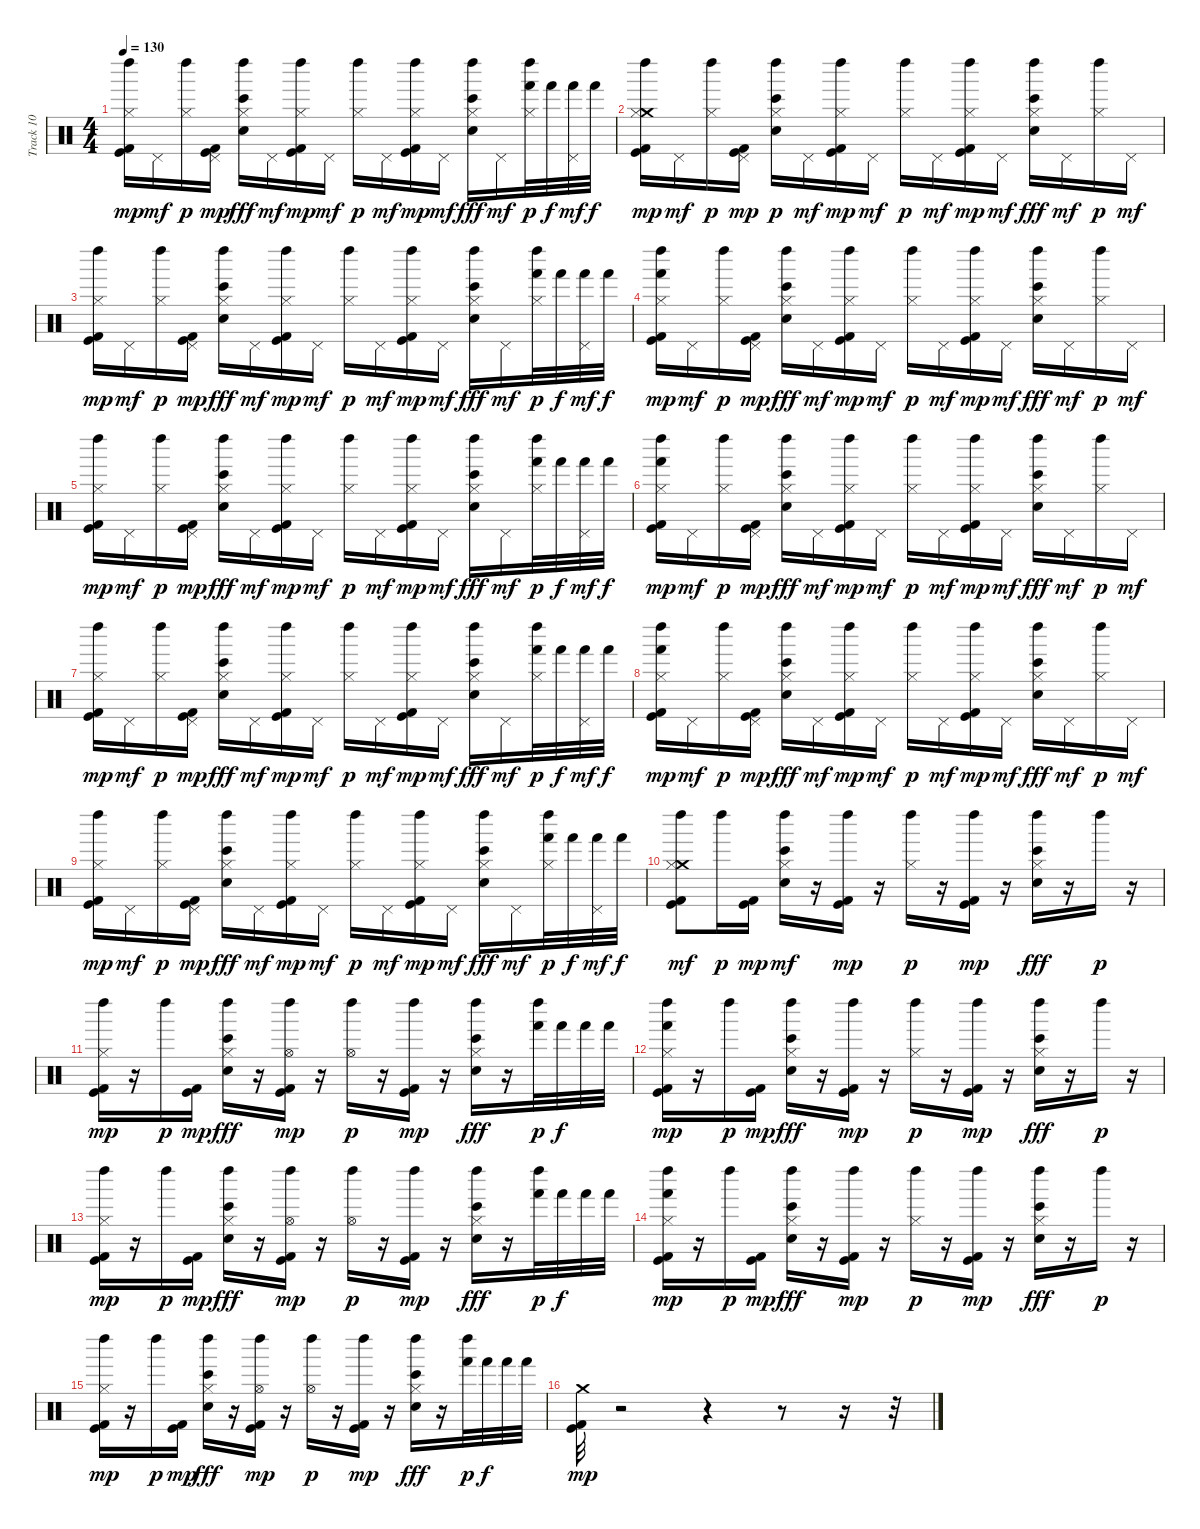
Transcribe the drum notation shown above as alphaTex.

\track ("Track 10" "Track 10") {instrument percussion}
\staff {score}
\articulation defaults
\ts (4 4)
\tempo 130
\clef neutral
\ks c
("Hi-Hat (closed)" "Left Maraca (hit)" "Kick (hit) 2" "Kick (hit)").16{dy mp} "Pedal Hi-Hat (hit)".16{dy mf} ("Hi-Hat (closed)" "Left Maraca (hit)").16{dy p} ("Pedal Hi-Hat (hit)" "Kick (hit) 2" "Kick (hit)").16{dy mp} ("Hi-Hat (closed)" "Left Maraca (hit)" "Hand Clap (hit)" "Bongo High (hit)").16{dy fff} "Pedal Hi-Hat (hit)".16{dy mf} ("Hi-Hat (closed)" "Left Maraca (hit)" "Kick (hit) 2" "Kick (hit)").16{dy mp} "Pedal Hi-Hat (hit)".16{dy mf} ("Hi-Hat (closed)" "Left Maraca (hit)").16{dy p} "Pedal Hi-Hat (hit)".16{dy mf} ("Hi-Hat (closed)" "Left Maraca (hit)" "Kick (hit) 2" "Kick (hit)").16{dy mp} "Pedal Hi-Hat (hit)".16{dy mf} ("Hi-Hat (closed)" "Left Maraca (hit)" "Hand Clap (hit)" "Bongo High (hit)").16{dy fff} "Pedal Hi-Hat (hit)".16{dy mf} ("Hi-Hat (closed)" "Hand (hit)" "Left Maraca (hit)").32{dy p} "Hand (hit)".32{dy f} ("Pedal Hi-Hat (hit)" "Hand (hit)").32{dy mf} "Hand (hit)".32{dy f} |
("Crash medium (hit)" "Hi-Hat (closed)" "Left Maraca (hit)" "Kick (hit) 2" "Kick (hit)").16{dy mp} "Pedal Hi-Hat (hit)".16{dy mf} ("Hi-Hat (closed)" "Left Maraca (hit)").16{dy p} ("Pedal Hi-Hat (hit)" "Kick (hit) 2" "Kick (hit)").16{dy mp} ("Hand Clap (hit)" "Bongo High (hit)" "Hi-Hat (closed)" "Left Maraca (hit)").16{dy p} "Pedal Hi-Hat (hit)".16{dy mf} ("Hi-Hat (closed)" "Left Maraca (hit)" "Kick (hit) 2" "Kick (hit)").16{dy mp} "Pedal Hi-Hat (hit)".16{dy mf} ("Hi-Hat (closed)" "Left Maraca (hit)").16{dy p} "Pedal Hi-Hat (hit)".16{dy mf} ("Hi-Hat (closed)" "Left Maraca (hit)" "Kick (hit) 2" "Kick (hit)").16{dy mp} "Pedal Hi-Hat (hit)".16{dy mf} ("Hi-Hat (closed)" "Left Maraca (hit)" "Hand Clap (hit)" "Bongo High (hit)").16{dy fff} "Pedal Hi-Hat (hit)".16{dy mf} ("Hi-Hat (closed)" "Left Maraca (hit)").16{dy p} "Pedal Hi-Hat (hit)".16{dy mf} |
("Hi-Hat (closed)" "Left Maraca (hit)" "Kick (hit) 2" "Kick (hit)").16{dy mp} "Pedal Hi-Hat (hit)".16{dy mf} ("Hi-Hat (closed)" "Left Maraca (hit)").16{dy p} ("Pedal Hi-Hat (hit)" "Kick (hit) 2" "Kick (hit)").16{dy mp} ("Hi-Hat (closed)" "Left Maraca (hit)" "Hand Clap (hit)" "Bongo High (hit)").16{dy fff} "Pedal Hi-Hat (hit)".16{dy mf} ("Hi-Hat (closed)" "Left Maraca (hit)" "Kick (hit) 2" "Kick (hit)").16{dy mp} "Pedal Hi-Hat (hit)".16{dy mf} ("Hi-Hat (closed)" "Left Maraca (hit)").16{dy p} "Pedal Hi-Hat (hit)".16{dy mf} ("Hi-Hat (closed)" "Left Maraca (hit)" "Kick (hit) 2" "Kick (hit)").16{dy mp} "Pedal Hi-Hat (hit)".16{dy mf} ("Hi-Hat (closed)" "Left Maraca (hit)" "Hand Clap (hit)" "Bongo High (hit)").16{dy fff} "Pedal Hi-Hat (hit)".16{dy mf} ("Hi-Hat (closed)" "Hand (hit)" "Left Maraca (hit)").32{dy p} "Hand (hit)".32{dy f} ("Pedal Hi-Hat (hit)" "Hand (hit)").32{dy mf} "Hand (hit)".32{dy f} |
("Hand (hit)" "Hi-Hat (closed)" "Left Maraca (hit)" "Kick (hit) 2" "Kick (hit)").16{dy mp} "Pedal Hi-Hat (hit)".16{dy mf} ("Hi-Hat (closed)" "Left Maraca (hit)").16{dy p} ("Pedal Hi-Hat (hit)" "Kick (hit) 2" "Kick (hit)").16{dy mp} ("Hi-Hat (closed)" "Left Maraca (hit)" "Hand Clap (hit)" "Bongo High (hit)").16{dy fff} "Pedal Hi-Hat (hit)".16{dy mf} ("Hi-Hat (closed)" "Left Maraca (hit)" "Kick (hit) 2" "Kick (hit)").16{dy mp} "Pedal Hi-Hat (hit)".16{dy mf} ("Hi-Hat (closed)" "Left Maraca (hit)").16{dy p} "Pedal Hi-Hat (hit)".16{dy mf} ("Hi-Hat (closed)" "Left Maraca (hit)" "Kick (hit) 2" "Kick (hit)").16{dy mp} "Pedal Hi-Hat (hit)".16{dy mf} ("Hi-Hat (closed)" "Left Maraca (hit)" "Hand Clap (hit)" "Bongo High (hit)").16{dy fff} "Pedal Hi-Hat (hit)".16{dy mf} ("Hi-Hat (closed)" "Left Maraca (hit)").16{dy p} "Pedal Hi-Hat (hit)".16{dy mf} |
("Hi-Hat (closed)" "Left Maraca (hit)" "Kick (hit) 2" "Kick (hit)").16{dy mp} "Pedal Hi-Hat (hit)".16{dy mf} ("Hi-Hat (closed)" "Left Maraca (hit)").16{dy p} ("Pedal Hi-Hat (hit)" "Kick (hit) 2" "Kick (hit)").16{dy mp} ("Hi-Hat (closed)" "Left Maraca (hit)" "Hand Clap (hit)" "Bongo High (hit)").16{dy fff} "Pedal Hi-Hat (hit)".16{dy mf} ("Hi-Hat (closed)" "Left Maraca (hit)" "Kick (hit) 2" "Kick (hit)").16{dy mp} "Pedal Hi-Hat (hit)".16{dy mf} ("Hi-Hat (closed)" "Left Maraca (hit)").16{dy p} "Pedal Hi-Hat (hit)".16{dy mf} ("Hi-Hat (closed)" "Left Maraca (hit)" "Kick (hit) 2" "Kick (hit)").16{dy mp} "Pedal Hi-Hat (hit)".16{dy mf} ("Hi-Hat (closed)" "Left Maraca (hit)" "Hand Clap (hit)" "Bongo High (hit)").16{dy fff} "Pedal Hi-Hat (hit)".16{dy mf} ("Hi-Hat (closed)" "Hand (hit)" "Left Maraca (hit)").32{dy p} "Hand (hit)".32{dy f} ("Pedal Hi-Hat (hit)" "Hand (hit)").32{dy mf} "Hand (hit)".32{dy f} |
("Hand (hit)" "Hi-Hat (closed)" "Left Maraca (hit)" "Kick (hit) 2" "Kick (hit)").16{dy mp} "Pedal Hi-Hat (hit)".16{dy mf} ("Hi-Hat (closed)" "Left Maraca (hit)").16{dy p} ("Pedal Hi-Hat (hit)" "Kick (hit) 2" "Kick (hit)").16{dy mp} ("Hi-Hat (closed)" "Left Maraca (hit)" "Hand Clap (hit)" "Bongo High (hit)").16{dy fff} "Pedal Hi-Hat (hit)".16{dy mf} ("Hi-Hat (closed)" "Left Maraca (hit)" "Kick (hit) 2" "Kick (hit)").16{dy mp} "Pedal Hi-Hat (hit)".16{dy mf} ("Hi-Hat (closed)" "Left Maraca (hit)").16{dy p} "Pedal Hi-Hat (hit)".16{dy mf} ("Hi-Hat (closed)" "Left Maraca (hit)" "Kick (hit) 2" "Kick (hit)").16{dy mp} "Pedal Hi-Hat (hit)".16{dy mf} ("Hi-Hat (closed)" "Left Maraca (hit)" "Hand Clap (hit)" "Bongo High (hit)").16{dy fff} "Pedal Hi-Hat (hit)".16{dy mf} ("Hi-Hat (closed)" "Left Maraca (hit)").16{dy p} "Pedal Hi-Hat (hit)".16{dy mf} |
("Hi-Hat (closed)" "Left Maraca (hit)" "Kick (hit) 2" "Kick (hit)").16{dy mp} "Pedal Hi-Hat (hit)".16{dy mf} ("Hi-Hat (closed)" "Left Maraca (hit)").16{dy p} ("Pedal Hi-Hat (hit)" "Kick (hit) 2" "Kick (hit)").16{dy mp} ("Hi-Hat (closed)" "Left Maraca (hit)" "Hand Clap (hit)" "Bongo High (hit)").16{dy fff} "Pedal Hi-Hat (hit)".16{dy mf} ("Hi-Hat (closed)" "Left Maraca (hit)" "Kick (hit) 2" "Kick (hit)").16{dy mp} "Pedal Hi-Hat (hit)".16{dy mf} ("Hi-Hat (closed)" "Left Maraca (hit)").16{dy p} "Pedal Hi-Hat (hit)".16{dy mf} ("Hi-Hat (closed)" "Left Maraca (hit)" "Kick (hit) 2" "Kick (hit)").16{dy mp} "Pedal Hi-Hat (hit)".16{dy mf} ("Hi-Hat (closed)" "Left Maraca (hit)" "Hand Clap (hit)" "Bongo High (hit)").16{dy fff} "Pedal Hi-Hat (hit)".16{dy mf} ("Hi-Hat (closed)" "Hand (hit)" "Left Maraca (hit)").32{dy p} "Hand (hit)".32{dy f} ("Pedal Hi-Hat (hit)" "Hand (hit)").32{dy mf} "Hand (hit)".32{dy f} |
("Hand (hit)" "Hi-Hat (closed)" "Left Maraca (hit)" "Kick (hit) 2" "Kick (hit)").16{dy mp} "Pedal Hi-Hat (hit)".16{dy mf} ("Hi-Hat (closed)" "Left Maraca (hit)").16{dy p} ("Pedal Hi-Hat (hit)" "Kick (hit) 2" "Kick (hit)").16{dy mp} ("Hi-Hat (closed)" "Left Maraca (hit)" "Hand Clap (hit)" "Bongo High (hit)").16{dy fff} "Pedal Hi-Hat (hit)".16{dy mf} ("Hi-Hat (closed)" "Left Maraca (hit)" "Kick (hit) 2" "Kick (hit)").16{dy mp} "Pedal Hi-Hat (hit)".16{dy mf} ("Hi-Hat (closed)" "Left Maraca (hit)").16{dy p} "Pedal Hi-Hat (hit)".16{dy mf} ("Hi-Hat (closed)" "Left Maraca (hit)" "Kick (hit) 2" "Kick (hit)").16{dy mp} "Pedal Hi-Hat (hit)".16{dy mf} ("Hi-Hat (closed)" "Left Maraca (hit)" "Hand Clap (hit)" "Bongo High (hit)").16{dy fff} "Pedal Hi-Hat (hit)".16{dy mf} ("Hi-Hat (closed)" "Left Maraca (hit)").16{dy p} "Pedal Hi-Hat (hit)".16{dy mf} |
("Hi-Hat (closed)" "Left Maraca (hit)" "Kick (hit) 2" "Kick (hit)").16{dy mp} "Pedal Hi-Hat (hit)".16{dy mf} ("Hi-Hat (closed)" "Left Maraca (hit)").16{dy p} ("Pedal Hi-Hat (hit)" "Kick (hit) 2" "Kick (hit)").16{dy mp} ("Hi-Hat (closed)" "Left Maraca (hit)" "Hand Clap (hit)" "Bongo High (hit)").16{dy fff} "Pedal Hi-Hat (hit)".16{dy mf} ("Hi-Hat (closed)" "Left Maraca (hit)" "Kick (hit) 2" "Kick (hit)").16{dy mp} "Pedal Hi-Hat (hit)".16{dy mf} ("Hi-Hat (closed)" "Left Maraca (hit)").16{dy p} "Pedal Hi-Hat (hit)".16{dy mf} ("Hi-Hat (closed)" "Left Maraca (hit)" "Kick (hit) 2" "Kick (hit)").16{dy mp} "Pedal Hi-Hat (hit)".16{dy mf} ("Hi-Hat (closed)" "Left Maraca (hit)" "Hand Clap (hit)" "Bongo High (hit)").16{dy fff} "Pedal Hi-Hat (hit)".16{dy mf} ("Hi-Hat (closed)" "Hand (hit)" "Left Maraca (hit)").32{dy p} "Hand (hit)".32{dy f} ("Pedal Hi-Hat (hit)" "Hand (hit)").32{dy mf} "Hand (hit)".32{dy f} |
("Crash medium (hit)" "Left Maraca (hit)" "Kick (hit)" "Kick (hit) 2" "Hi-Hat (closed)").8{dy mf} "Left Maraca (hit)".16{dy p} ("Kick (hit) 2" "Kick (hit)").16{dy mp} ("Left Maraca (hit)" "Hand Clap (hit)" "Bongo High (hit)" "Hi-Hat (closed)").16{dy mf} r.16 ("Left Maraca (hit)" "Kick (hit) 2" "Kick (hit)").16{dy mp} r.16 ("Hi-Hat (closed)" "Left Maraca (hit)").16{dy p} r.16 ("Left Maraca (hit)" "Kick (hit) 2" "Kick (hit)").16{dy mp} r.16 ("Hi-Hat (closed)" "Left Maraca (hit)" "Hand Clap (hit)" "Bongo High (hit)").16{dy fff} r.16 "Left Maraca (hit)".16{dy p} r.16 |
("Hi-Hat (closed)" "Left Maraca (hit)" "Kick (hit) 2" "Kick (hit)").16{dy mp} r.16 "Left Maraca (hit)".16{dy p} ("Kick (hit) 2" "Kick (hit)").16{dy mp} ("Hi-Hat (closed)" "Left Maraca (hit)" "Hand Clap (hit)" "Bongo High (hit)").16{dy fff} r.16 ("Hi-Hat (open)" "Left Maraca (hit)" "Kick (hit) 2" "Kick (hit)").16{dy mp} r.16 ("Hi-Hat (open)" "Left Maraca (hit)").16{dy p} r.16 ("Left Maraca (hit)" "Kick (hit) 2" "Kick (hit)").16{dy mp} r.16 ("Hi-Hat (closed)" "Left Maraca (hit)" "Hand Clap (hit)" "Bongo High (hit)").16{dy fff} r.16 ("Hand (hit)" "Left Maraca (hit)").32{dy p} "Hand (hit)".32{dy f} "Hand (hit)".32 "Hand (hit)".32 |
("Hand (hit)" "Hi-Hat (closed)" "Left Maraca (hit)" "Kick (hit) 2" "Kick (hit)").16{dy mp} r.16 "Left Maraca (hit)".16{dy p} ("Kick (hit) 2" "Kick (hit)").16{dy mp} ("Hi-Hat (closed)" "Left Maraca (hit)" "Hand Clap (hit)" "Bongo High (hit)").16{dy fff} r.16 ("Left Maraca (hit)" "Kick (hit) 2" "Kick (hit)").16{dy mp} r.16 ("Hi-Hat (closed)" "Left Maraca (hit)").16{dy p} r.16 ("Left Maraca (hit)" "Kick (hit) 2" "Kick (hit)").16{dy mp} r.16 ("Hi-Hat (closed)" "Left Maraca (hit)" "Hand Clap (hit)" "Bongo High (hit)").16{dy fff} r.16 "Left Maraca (hit)".16{dy p} r.16 |
("Hi-Hat (closed)" "Left Maraca (hit)" "Kick (hit) 2" "Kick (hit)").16{dy mp} r.16 "Left Maraca (hit)".16{dy p} ("Kick (hit) 2" "Kick (hit)").16{dy mp} ("Hi-Hat (closed)" "Left Maraca (hit)" "Hand Clap (hit)" "Bongo High (hit)").16{dy fff} r.16 ("Hi-Hat (open)" "Left Maraca (hit)" "Kick (hit) 2" "Kick (hit)").16{dy mp} r.16 ("Hi-Hat (open)" "Left Maraca (hit)").16{dy p} r.16 ("Left Maraca (hit)" "Kick (hit) 2" "Kick (hit)").16{dy mp} r.16 ("Hi-Hat (closed)" "Left Maraca (hit)" "Hand Clap (hit)" "Bongo High (hit)").16{dy fff} r.16 ("Hand (hit)" "Left Maraca (hit)").32{dy p} "Hand (hit)".32{dy f} "Hand (hit)".32 "Hand (hit)".32 |
("Hand (hit)" "Hi-Hat (closed)" "Left Maraca (hit)" "Kick (hit) 2" "Kick (hit)").16{dy mp} r.16 "Left Maraca (hit)".16{dy p} ("Kick (hit) 2" "Kick (hit)").16{dy mp} ("Hi-Hat (closed)" "Left Maraca (hit)" "Hand Clap (hit)" "Bongo High (hit)").16{dy fff} r.16 ("Left Maraca (hit)" "Kick (hit) 2" "Kick (hit)").16{dy mp} r.16 ("Hi-Hat (closed)" "Left Maraca (hit)").16{dy p} r.16 ("Left Maraca (hit)" "Kick (hit) 2" "Kick (hit)").16{dy mp} r.16 ("Hi-Hat (closed)" "Left Maraca (hit)" "Hand Clap (hit)" "Bongo High (hit)").16{dy fff} r.16 "Left Maraca (hit)".16{dy p} r.16 |
("Hi-Hat (closed)" "Left Maraca (hit)" "Kick (hit) 2" "Kick (hit)").16{dy mp} r.16 "Left Maraca (hit)".16{dy p} ("Kick (hit) 2" "Kick (hit)").16{dy mp} ("Hi-Hat (closed)" "Left Maraca (hit)" "Hand Clap (hit)" "Bongo High (hit)").16{dy fff} r.16 ("Hi-Hat (open)" "Left Maraca (hit)" "Kick (hit) 2" "Kick (hit)").16{dy mp} r.16 ("Hi-Hat (open)" "Left Maraca (hit)").16{dy p} r.16 ("Left Maraca (hit)" "Kick (hit) 2" "Kick (hit)").16{dy mp} r.16 ("Hi-Hat (closed)" "Left Maraca (hit)" "Hand Clap (hit)" "Bongo High (hit)").16{dy fff} r.16 ("Hand (hit)" "Left Maraca (hit)").32{dy p} "Hand (hit)".32{dy f} "Hand (hit)".32 "Hand (hit)".32 |
("Kick (hit) 2" "Crash medium (hit)" "Kick (hit)").32{dy mp} r.2 r.4 r.8 r.16 r.32
